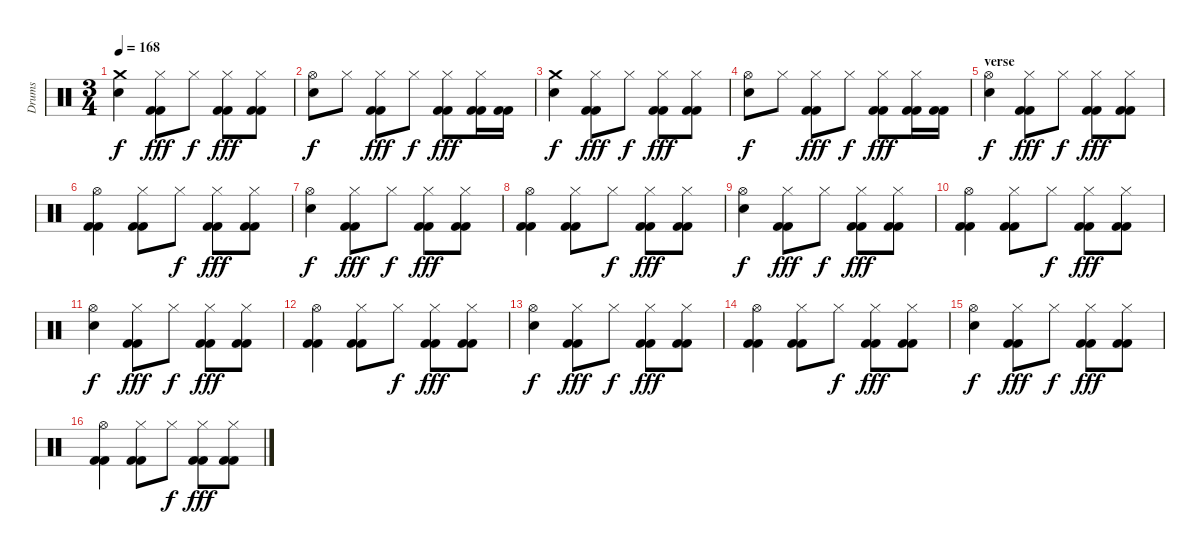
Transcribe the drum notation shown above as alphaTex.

\track ("Drums" "Drums") {instrument percussion}
\staff {score}
\articulation defaults
\ts (3 4)
\tempo 168
\clef neutral
\ks c
("Crash medium (hit)" "Electric Snare (hit)").4{dy f} ("Hi-Hat (closed)" "Kick (hit) 2" "Kick (hit) 2").8{dy fff} "Hi-Hat (closed)".8{dy f} ("Hi-Hat (closed)" "Kick (hit) 2" "Kick (hit) 2").8{dy fff} ("Hi-Hat (closed)" "Kick (hit) 2" "Kick (hit) 2").8 |
("Hi-Hat (open)" "Electric Snare (hit)").8{dy f} "Hi-Hat (closed)".8 ("Hi-Hat (closed)" "Kick (hit) 2" "Kick (hit) 2").8{dy fff} "Hi-Hat (closed)".8{dy f} ("Hi-Hat (closed)" "Kick (hit) 2" "Kick (hit) 2").8{dy fff} ("Hi-Hat (closed)" "Kick (hit) 2" "Kick (hit) 2").16 ("Kick (hit) 2" "Kick (hit) 2").16 |
("Crash medium (hit)" "Electric Snare (hit)").4{dy f} ("Hi-Hat (closed)" "Kick (hit) 2" "Kick (hit) 2").8{dy fff} "Hi-Hat (closed)".8{dy f} ("Hi-Hat (closed)" "Kick (hit) 2" "Kick (hit) 2").8{dy fff} ("Hi-Hat (closed)" "Kick (hit) 2" "Kick (hit) 2").8 |
("Hi-Hat (open)" "Electric Snare (hit)").8{dy f} "Hi-Hat (closed)".8 ("Hi-Hat (closed)" "Kick (hit) 2" "Kick (hit) 2").8{dy fff} "Hi-Hat (closed)".8{dy f} ("Hi-Hat (closed)" "Kick (hit) 2" "Kick (hit) 2").8{dy fff} ("Hi-Hat (closed)" "Kick (hit) 2" "Kick (hit) 2").16 ("Kick (hit) 2" "Kick (hit) 2").16 |
\section ("" "verse")
("Hi-Hat (open)" "Electric Snare (hit)").4{dy f} ("Hi-Hat (closed)" "Kick (hit) 2" "Kick (hit) 2").8{dy fff} "Hi-Hat (closed)".8{dy f} ("Hi-Hat (closed)" "Kick (hit) 2" "Kick (hit) 2").8{dy fff} ("Hi-Hat (closed)" "Kick (hit) 2" "Kick (hit) 2").8 |
("Hi-Hat (open)" "Kick (hit) 2" "Kick (hit) 2").4 ("Hi-Hat (closed)" "Kick (hit) 2" "Kick (hit) 2").8 "Hi-Hat (closed)".8{dy f} ("Hi-Hat (closed)" "Kick (hit) 2" "Kick (hit) 2").8{dy fff} ("Hi-Hat (closed)" "Kick (hit) 2" "Kick (hit) 2").8 |
("Hi-Hat (open)" "Electric Snare (hit)").4{dy f} ("Hi-Hat (closed)" "Kick (hit) 2" "Kick (hit) 2").8{dy fff} "Hi-Hat (closed)".8{dy f} ("Hi-Hat (closed)" "Kick (hit) 2" "Kick (hit) 2").8{dy fff} ("Hi-Hat (closed)" "Kick (hit) 2" "Kick (hit) 2").8 |
("Hi-Hat (open)" "Kick (hit) 2" "Kick (hit) 2").4 ("Hi-Hat (closed)" "Kick (hit) 2" "Kick (hit) 2").8 "Hi-Hat (closed)".8{dy f} ("Hi-Hat (closed)" "Kick (hit) 2" "Kick (hit) 2").8{dy fff} ("Hi-Hat (closed)" "Kick (hit) 2" "Kick (hit) 2").8 |
("Hi-Hat (open)" "Electric Snare (hit)").4{dy f} ("Hi-Hat (closed)" "Kick (hit) 2" "Kick (hit) 2").8{dy fff} "Hi-Hat (closed)".8{dy f} ("Hi-Hat (closed)" "Kick (hit) 2" "Kick (hit) 2").8{dy fff} ("Hi-Hat (closed)" "Kick (hit) 2" "Kick (hit) 2").8 |
("Hi-Hat (open)" "Kick (hit) 2" "Kick (hit) 2").4 ("Hi-Hat (closed)" "Kick (hit) 2" "Kick (hit) 2").8 "Hi-Hat (closed)".8{dy f} ("Hi-Hat (closed)" "Kick (hit) 2" "Kick (hit) 2").8{dy fff} ("Hi-Hat (closed)" "Kick (hit) 2" "Kick (hit) 2").8 |
("Hi-Hat (open)" "Electric Snare (hit)").4{dy f} ("Hi-Hat (closed)" "Kick (hit) 2" "Kick (hit) 2").8{dy fff} "Hi-Hat (closed)".8{dy f} ("Hi-Hat (closed)" "Kick (hit) 2" "Kick (hit) 2").8{dy fff} ("Hi-Hat (closed)" "Kick (hit) 2" "Kick (hit) 2").8 |
("Hi-Hat (open)" "Kick (hit) 2" "Kick (hit) 2").4 ("Hi-Hat (closed)" "Kick (hit) 2" "Kick (hit) 2").8 "Hi-Hat (closed)".8{dy f} ("Hi-Hat (closed)" "Kick (hit) 2" "Kick (hit) 2").8{dy fff} ("Hi-Hat (closed)" "Kick (hit) 2" "Kick (hit) 2").8 |
("Hi-Hat (open)" "Electric Snare (hit)").4{dy f} ("Hi-Hat (closed)" "Kick (hit) 2" "Kick (hit) 2").8{dy fff} "Hi-Hat (closed)".8{dy f} ("Hi-Hat (closed)" "Kick (hit) 2" "Kick (hit) 2").8{dy fff} ("Hi-Hat (closed)" "Kick (hit) 2" "Kick (hit) 2").8 |
("Hi-Hat (open)" "Kick (hit) 2" "Kick (hit) 2").4 ("Hi-Hat (closed)" "Kick (hit) 2" "Kick (hit) 2").8 "Hi-Hat (closed)".8{dy f} ("Hi-Hat (closed)" "Kick (hit) 2" "Kick (hit) 2").8{dy fff} ("Hi-Hat (closed)" "Kick (hit) 2" "Kick (hit) 2").8 |
("Hi-Hat (open)" "Electric Snare (hit)").4{dy f} ("Hi-Hat (closed)" "Kick (hit) 2" "Kick (hit) 2").8{dy fff} "Hi-Hat (closed)".8{dy f} ("Hi-Hat (closed)" "Kick (hit) 2" "Kick (hit) 2").8{dy fff} ("Hi-Hat (closed)" "Kick (hit) 2" "Kick (hit) 2").8 |
("Hi-Hat (open)" "Kick (hit) 2" "Kick (hit) 2").4 ("Hi-Hat (closed)" "Kick (hit) 2" "Kick (hit) 2").8 "Hi-Hat (closed)".8{dy f} ("Hi-Hat (closed)" "Kick (hit) 2" "Kick (hit) 2").8{dy fff} ("Hi-Hat (closed)" "Kick (hit) 2" "Kick (hit) 2").8
